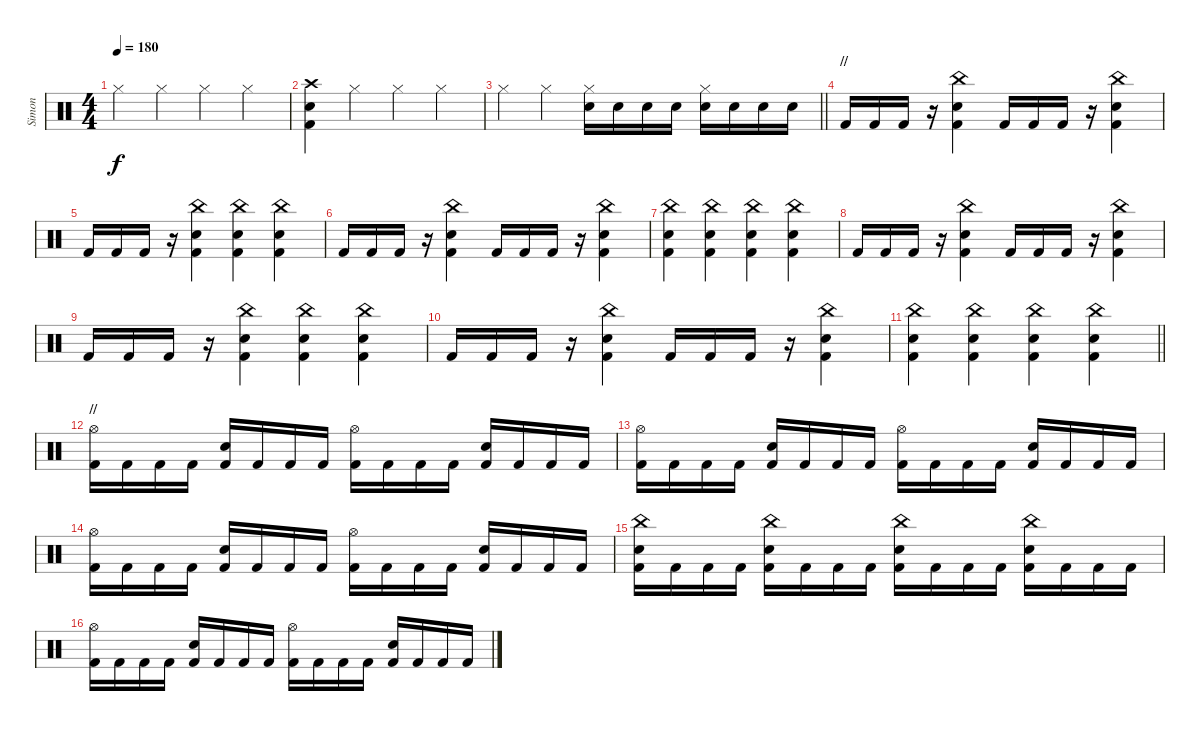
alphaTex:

\track ("Simon" "Simon") {instrument percussion}
\staff {score}
\articulation defaults
\ts (4 4)
\tempo 180
\clef neutral
\ks c "Hi-Hat (closed)".4{dy f} "Hi-Hat (closed)".4 "Hi-Hat (closed)".4 "Hi-Hat (closed)".4
|
("Crash high (hit)" "Electric Snare (hit)" "Kick (hit) 2").4 "Hi-Hat (closed)".4 "Hi-Hat (closed)".4 "Hi-Hat (closed)".4 |
\barLineRight lightlight "Hi-Hat (closed)".4 "Hi-Hat (closed)".4
("Electric Snare (hit)" "Hi-Hat (closed)").16 "Electric Snare (hit)".16 "Electric Snare (hit)".16 "Electric Snare (hit)".16 ("Electric Snare (hit)" "Hi-Hat (closed)").16 "Electric Snare (hit)".16 "Electric Snare (hit)".16 "Electric Snare (hit)".16 |
\section ("" "//")
"Kick (hit) 2".16 "Kick (hit) 2".16 "Kick (hit) 2".16 r.16 ("China (hit)" "Electric Snare (hit)" "Kick (hit) 2").4 "Kick (hit) 2".16 "Kick (hit) 2".16 "Kick (hit) 2".16 r.16 ("China (hit)" "Electric Snare (hit)" "Kick (hit) 2").4 |
"Kick (hit) 2".16 "Kick (hit) 2".16 "Kick (hit) 2".16 r.16 ("China (hit)" "Electric Snare (hit)" "Kick (hit) 2").4 ("China (hit)" "Electric Snare (hit)" "Kick (hit) 2").4 ("China (hit)" "Electric Snare (hit)" "Kick (hit) 2").4 |
"Kick (hit) 2".16 "Kick (hit) 2".16 "Kick (hit) 2".16 r.16 ("China (hit)" "Electric Snare (hit)" "Kick (hit) 2").4 "Kick (hit) 2".16 "Kick (hit) 2".16 "Kick (hit) 2".16 r.16 ("China (hit)" "Electric Snare (hit)" "Kick (hit) 2").4 |
("China (hit)" "Electric Snare (hit)" "Kick (hit) 2").4 ("China (hit)" "Electric Snare (hit)" "Kick (hit) 2").4 ("China (hit)" "Electric Snare (hit)" "Kick (hit) 2").4 ("China (hit)" "Electric Snare (hit)" "Kick (hit) 2").4 |
"Kick (hit) 2".16 "Kick (hit) 2".16 "Kick (hit) 2".16 r.16 ("China (hit)" "Electric Snare (hit)" "Kick (hit) 2").4 "Kick (hit) 2".16 "Kick (hit) 2".16 "Kick (hit) 2".16 r.16 ("China (hit)" "Electric Snare (hit)" "Kick (hit) 2").4 |
"Kick (hit) 2".16 "Kick (hit) 2".16 "Kick (hit) 2".16 r.16 ("China (hit)" "Electric Snare (hit)" "Kick (hit) 2").4 ("China (hit)" "Electric Snare (hit)" "Kick (hit) 2").4 ("China (hit)" "Electric Snare (hit)" "Kick (hit) 2").4 |
"Kick (hit) 2".16 "Kick (hit) 2".16 "Kick (hit) 2".16 r.16 ("China (hit)" "Electric Snare (hit)" "Kick (hit) 2").4 "Kick (hit) 2".16 "Kick (hit) 2".16 "Kick (hit) 2".16 r.16 ("China (hit)" "Electric Snare (hit)" "Kick (hit) 2").4 |
\barLineRight lightlight
("China (hit)" "Electric Snare (hit)" "Kick (hit) 2").4 ("China (hit)" "Electric Snare (hit)" "Kick (hit) 2").4 ("China (hit)" "Electric Snare (hit)" "Kick (hit) 2").4 ("China (hit)" "Electric Snare (hit)" "Kick (hit) 2").4 |
\section ("" "//")
("Hi-Hat (open)" "Kick (hit) 2").16 "Kick (hit) 2".16 "Kick (hit) 2".16 "Kick (hit) 2".16 ("Electric Snare (hit)" "Kick (hit) 2").16 "Kick (hit) 2".16 "Kick (hit) 2".16 "Kick (hit) 2".16 ("Hi-Hat (open)" "Kick (hit) 2").16 "Kick (hit) 2".16 "Kick (hit) 2".16 "Kick (hit) 2".16 ("Electric Snare (hit)" "Kick (hit) 2").16 "Kick (hit) 2".16 "Kick (hit) 2".16 "Kick (hit) 2".16 |
("Hi-Hat (open)" "Kick (hit) 2").16 "Kick (hit) 2".16 "Kick (hit) 2".16 "Kick (hit) 2".16 ("Electric Snare (hit)" "Kick (hit) 2").16 "Kick (hit) 2".16 "Kick (hit) 2".16 "Kick (hit) 2".16 ("Hi-Hat (open)" "Kick (hit) 2").16 "Kick (hit) 2".16 "Kick (hit) 2".16 "Kick (hit) 2".16 ("Electric Snare (hit)" "Kick (hit) 2").16 "Kick (hit) 2".16 "Kick (hit) 2".16 "Kick (hit) 2".16 |
("Hi-Hat (open)" "Kick (hit) 2").16 "Kick (hit) 2".16 "Kick (hit) 2".16 "Kick (hit) 2".16 ("Electric Snare (hit)" "Kick (hit) 2").16 "Kick (hit) 2".16 "Kick (hit) 2".16 "Kick (hit) 2".16 ("Hi-Hat (open)" "Kick (hit) 2").16 "Kick (hit) 2".16 "Kick (hit) 2".16 "Kick (hit) 2".16 ("Electric Snare (hit)" "Kick (hit) 2").16 "Kick (hit) 2".16 "Kick (hit) 2".16 "Kick (hit) 2".16 |
("China (hit)" "Electric Snare (hit)" "Kick (hit) 2").16 "Kick (hit) 2".16 "Kick (hit) 2".16 "Kick (hit) 2".16 ("China (hit)" "Electric Snare (hit)" "Kick (hit) 2").16 "Kick (hit) 2".16 "Kick (hit) 2".16 "Kick (hit) 2".16 ("China (hit)" "Electric Snare (hit)" "Kick (hit) 2").16 "Kick (hit) 2".16 "Kick (hit) 2".16 "Kick (hit) 2".16 ("China (hit)" "Electric Snare (hit)" "Kick (hit) 2").16 "Kick (hit) 2".16 "Kick (hit) 2".16 "Kick (hit) 2".16 |
("Hi-Hat (open)" "Kick (hit) 2").16 "Kick (hit) 2".16 "Kick (hit) 2".16 "Kick (hit) 2".16 ("Electric Snare (hit)" "Kick (hit) 2").16 "Kick (hit) 2".16 "Kick (hit) 2".16 "Kick (hit) 2".16 ("Hi-Hat (open)" "Kick (hit) 2").16 "Kick (hit) 2".16 "Kick (hit) 2".16 "Kick (hit) 2".16 ("Electric Snare (hit)" "Kick (hit) 2").16 "Kick (hit) 2".16 "Kick (hit) 2".16 "Kick (hit) 2".16
